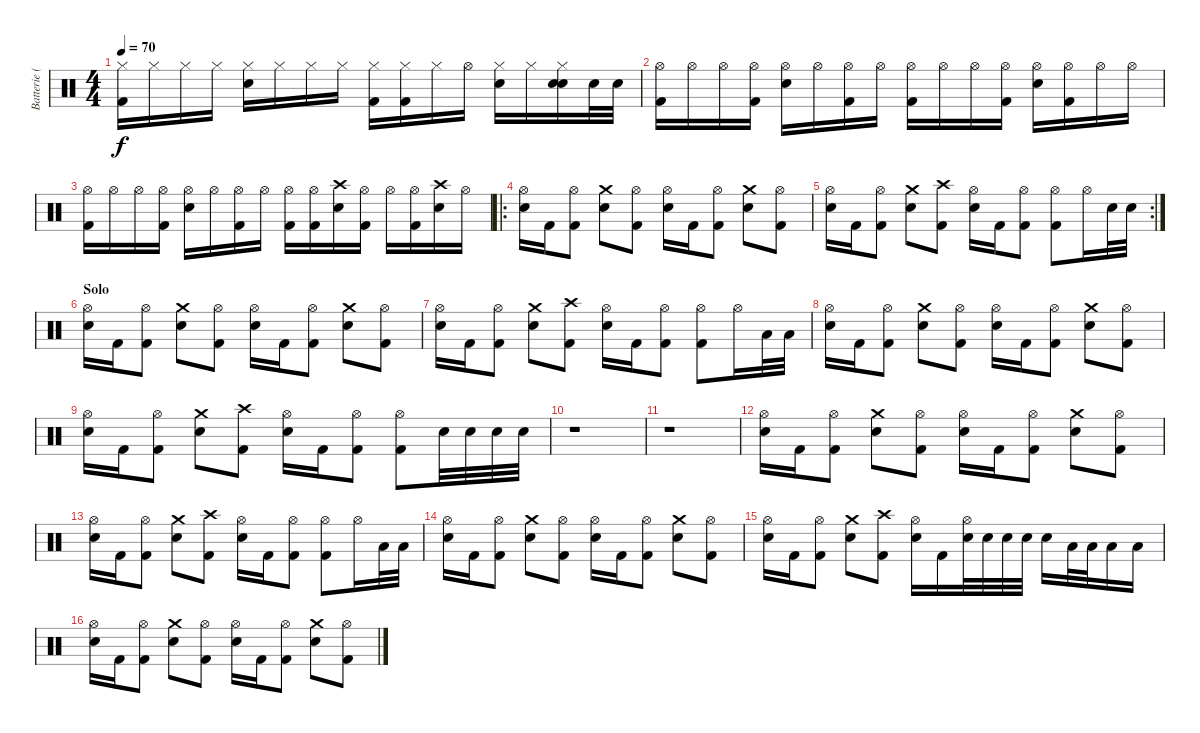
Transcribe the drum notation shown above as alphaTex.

\track ("Batterie (Racci \"Sketchy\" Shay)" "Batterie (") {instrument percussion}
\staff {score}
\articulation defaults
\ts (4 4)
\tempo 70
\clef neutral
\ks c
("Hi-Hat (closed)" "Kick (hit) 2").16{dy f} "Hi-Hat (closed)".16 "Hi-Hat (closed)".16 "Hi-Hat (closed)".16 ("Hi-Hat (closed)" "Electric Snare (hit)").16 "Hi-Hat (closed)".16 "Hi-Hat (closed)".16 "Hi-Hat (closed)".16 ("Hi-Hat (closed)" "Kick (hit) 2").16 ("Hi-Hat (closed)" "Kick (hit) 2").16 "Hi-Hat (closed)".16 "Hi-Hat (open)".16 ("Hi-Hat (closed)" "Electric Snare (hit)").16 "Hi-Hat (closed)".16 ("Hi-Hat (closed)" "Hand Clap (hit)" "Electric Snare (hit)").16 "Electric Snare (hit)".32 "Electric Snare (hit)".32 |
("Hi-Hat (open)" "Kick (hit) 2").16 "Hi-Hat (open)".16 "Hi-Hat (open)".16 ("Hi-Hat (open)" "Kick (hit) 2").16 ("Hi-Hat (open)" "Electric Snare (hit)").16 "Hi-Hat (open)".16 ("Hi-Hat (open)" "Kick (hit) 2").16 "Hi-Hat (open)".16 ("Hi-Hat (open)" "Kick (hit) 2").16 "Hi-Hat (open)".16 "Hi-Hat (open)".16 ("Hi-Hat (open)" "Kick (hit) 2").16 ("Hi-Hat (open)" "Electric Snare (hit)").16 ("Hi-Hat (open)" "Kick (hit) 2").16 "Hi-Hat (open)".16 "Hi-Hat (open)".16 |
("Hi-Hat (open)" "Kick (hit) 2").16 "Hi-Hat (open)".16 "Hi-Hat (open)".16 ("Hi-Hat (open)" "Kick (hit) 2").16 ("Hi-Hat (open)" "Electric Snare (hit)").16 "Hi-Hat (open)".16 ("Hi-Hat (open)" "Kick (hit) 2").16 "Hi-Hat (open)".16 ("Hi-Hat (open)" "Kick (hit) 2").16 ("Hi-Hat (open)" "Kick (hit) 2").16 ("Crash high (hit)" "Electric Snare (hit)").16 ("Hi-Hat (open)" "Kick (hit) 2").16 "Hi-Hat (open)".16 ("Hi-Hat (open)" "Kick (hit) 2").16 ("Crash high (hit)" "Electric Snare (hit)").16 "Hi-Hat (open)".16 |
\ro
("Hi-Hat (open)" "Electric Snare (hit)").16 "Kick (hit) 2".16 ("Hi-Hat (open)" "Kick (hit) 2").8 ("Crash medium (hit)" "Electric Snare (hit)").8 ("Hi-Hat (open)" "Kick (hit) 2").8 ("Hi-Hat (open)" "Electric Snare (hit)").16 "Kick (hit) 2".16 ("Hi-Hat (open)" "Kick (hit) 2").8 ("Crash medium (hit)" "Electric Snare (hit)").8 ("Hi-Hat (open)" "Kick (hit) 2").8 |
\rc 2
("Hi-Hat (open)" "Electric Snare (hit)").16 "Kick (hit) 2".16 ("Hi-Hat (open)" "Kick (hit) 2").8 ("Crash medium (hit)" "Electric Snare (hit)").8 ("Crash high (hit)" "Kick (hit) 2").8 ("Hi-Hat (open)" "Electric Snare (hit)").16 "Kick (hit) 2".16 ("Hi-Hat (open)" "Kick (hit) 2").8 ("Hi-Hat (open)" "Kick (hit) 2").8 "Hi-Hat (open)".16 "Electric Snare (hit)".32 "Electric Snare (hit)".32 |
\section ("" "Solo")
("Hi-Hat (open)" "Electric Snare (hit)").16 "Kick (hit) 2".16 ("Hi-Hat (open)" "Kick (hit) 2").8 ("Crash medium (hit)" "Electric Snare (hit)").8 ("Hi-Hat (open)" "Kick (hit) 2").8 ("Hi-Hat (open)" "Electric Snare (hit)").16 "Kick (hit) 2".16 ("Hi-Hat (open)" "Kick (hit) 2").8 ("Crash medium (hit)" "Electric Snare (hit)").8 ("Hi-Hat (open)" "Kick (hit) 2").8 |
("Hi-Hat (open)" "Electric Snare (hit)").16 "Kick (hit) 2".16 ("Hi-Hat (open)" "Kick (hit) 2").8 ("Crash medium (hit)" "Electric Snare (hit)").8 ("Crash high (hit)" "Kick (hit) 2").8 ("Hi-Hat (open)" "Electric Snare (hit)").16 "Kick (hit) 2".16 ("Hi-Hat (open)" "Kick (hit) 2").8 ("Hi-Hat (open)" "Kick (hit) 2").8 "Hi-Hat (open)".16 "Low Floor Tom (hit)".32 "Low Floor Tom (hit)".32 |
("Hi-Hat (open)" "Electric Snare (hit)").16 "Kick (hit) 2".16 ("Hi-Hat (open)" "Kick (hit) 2").8 ("Crash medium (hit)" "Electric Snare (hit)").8 ("Hi-Hat (open)" "Kick (hit) 2").8 ("Hi-Hat (open)" "Electric Snare (hit)").16 "Kick (hit) 2".16 ("Hi-Hat (open)" "Kick (hit) 2").8 ("Crash medium (hit)" "Electric Snare (hit)").8 ("Hi-Hat (open)" "Kick (hit) 2").8 |
("Hi-Hat (open)" "Electric Snare (hit)").16 "Kick (hit) 2".16 ("Hi-Hat (open)" "Kick (hit) 2").8 ("Crash medium (hit)" "Electric Snare (hit)").8 ("Crash high (hit)" "Kick (hit) 2").8 ("Hi-Hat (open)" "Electric Snare (hit)").16 "Kick (hit) 2".16 ("Hi-Hat (open)" "Kick (hit) 2").8 ("Hi-Hat (open)" "Kick (hit) 2").8 "Electric Snare (hit)".32 "Electric Snare (hit)".32 "Electric Snare (hit)".32 "Electric Snare (hit)".32 |
r.1 |
r.1 |
("Hi-Hat (open)" "Electric Snare (hit)").16 "Kick (hit) 2".16 ("Hi-Hat (open)" "Kick (hit) 2").8 ("Crash medium (hit)" "Electric Snare (hit)").8 ("Hi-Hat (open)" "Kick (hit) 2").8 ("Hi-Hat (open)" "Electric Snare (hit)").16 "Kick (hit) 2".16 ("Hi-Hat (open)" "Kick (hit) 2").8 ("Crash medium (hit)" "Electric Snare (hit)").8 ("Hi-Hat (open)" "Kick (hit) 2").8 |
("Hi-Hat (open)" "Electric Snare (hit)").16 "Kick (hit) 2".16 ("Hi-Hat (open)" "Kick (hit) 2").8 ("Crash medium (hit)" "Electric Snare (hit)").8 ("Crash high (hit)" "Kick (hit) 2").8 ("Hi-Hat (open)" "Electric Snare (hit)").16 "Kick (hit) 2".16 ("Hi-Hat (open)" "Kick (hit) 2").8 ("Hi-Hat (open)" "Kick (hit) 2").8 "Hi-Hat (open)".16 "Low Floor Tom (hit)".32 "Low Floor Tom (hit)".32 |
("Hi-Hat (open)" "Electric Snare (hit)").16 "Kick (hit) 2".16 ("Hi-Hat (open)" "Kick (hit) 2").8 ("Crash medium (hit)" "Electric Snare (hit)").8 ("Hi-Hat (open)" "Kick (hit) 2").8 ("Hi-Hat (open)" "Electric Snare (hit)").16 "Kick (hit) 2".16 ("Hi-Hat (open)" "Kick (hit) 2").8 ("Crash medium (hit)" "Electric Snare (hit)").8 ("Hi-Hat (open)" "Kick (hit) 2").8 |
("Hi-Hat (open)" "Electric Snare (hit)").16 "Kick (hit) 2".16 ("Hi-Hat (open)" "Kick (hit) 2").8 ("Crash medium (hit)" "Electric Snare (hit)").8 ("Crash high (hit)" "Kick (hit) 2").8 ("Hi-Hat (open)" "Electric Snare (hit)").16 "Kick (hit) 2".16 ("Hi-Hat (open)" "Electric Snare (hit)").32 "Electric Snare (hit)".32 "Electric Snare (hit)".32 "Electric Snare (hit)".32 "Electric Snare (hit)".16 "Low Floor Tom (hit)".32 "Low Floor Tom (hit)".32 "Low Floor Tom (hit)".16 "Low Floor Tom (hit)".16 |
("Hi-Hat (open)" "Electric Snare (hit)").16 "Kick (hit) 2".16 ("Hi-Hat (open)" "Kick (hit) 2").8 ("Crash medium (hit)" "Electric Snare (hit)").8 ("Hi-Hat (open)" "Kick (hit) 2").8 ("Hi-Hat (open)" "Electric Snare (hit)").16 "Kick (hit) 2".16 ("Hi-Hat (open)" "Kick (hit) 2").8 ("Crash medium (hit)" "Electric Snare (hit)").8 ("Hi-Hat (open)" "Kick (hit) 2").8
